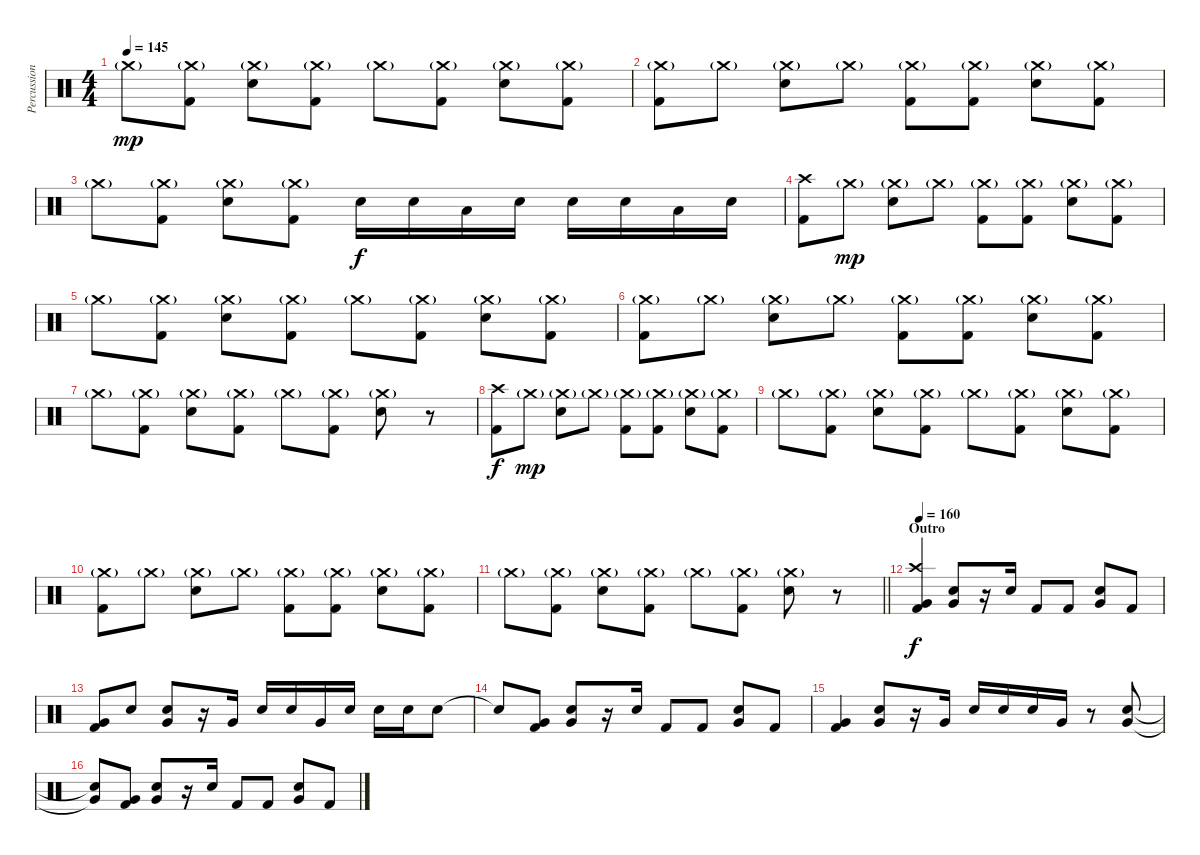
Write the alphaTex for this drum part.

\track ("Percussion" "Percussion") {instrument percussion}
\staff {score}
\articulation defaults
\ts (4 4)
\tempo 145
\clef neutral
\ks c "Crash medium (hit)"{g}.8{dy mp}
("Crash medium (hit)"{g} "Kick (hit) 2").8 ("Crash medium (hit)"{g} "Snare (hit) 2").8 ("Crash medium (hit)"{g} "Kick (hit) 2").8 "Crash medium (hit)"{g}.8 ("Crash medium (hit)"{g} "Kick (hit) 2").8 ("Crash medium (hit)"{g} "Snare (hit) 2").8 ("Crash medium (hit)"{g} "Kick (hit) 2").8 |
("Crash medium (hit)"{g} "Kick (hit) 2").8 "Crash medium (hit)"{g}.8 ("Crash medium (hit)"{g} "Snare (hit) 2").8 "Crash medium (hit)"{g}.8 ("Crash medium (hit)"{g} "Kick (hit) 2").8 ("Crash medium (hit)"{g} "Kick (hit) 2").8 ("Crash medium (hit)"{g} "Snare (hit) 2").8 ("Crash medium (hit)"{g} "Kick (hit) 2").8 |
"Crash medium (hit)"{g}.8 ("Crash medium (hit)"{g} "Kick (hit) 2").8 ("Crash medium (hit)"{g} "Snare (hit) 2").8 ("Crash medium (hit)"{g} "Kick (hit) 2").8 "Snare (hit) 2".16{dy f} "Snare (hit) 2".16 "Low Tom (hit)".16 "Snare (hit) 2".16 "Snare (hit) 2".16 "Snare (hit) 2".16 "Low Tom (hit)".16 "Snare (hit) 2".16 |
("Crash high (hit)" "Kick (hit) 2").8 "Crash medium (hit)"{g}.8{dy mp} ("Crash medium (hit)"{g} "Snare (hit) 2").8 "Crash medium (hit)"{g}.8 ("Crash medium (hit)"{g} "Kick (hit) 2").8 ("Crash medium (hit)"{g} "Kick (hit) 2").8 ("Crash medium (hit)"{g} "Snare (hit) 2").8 ("Crash medium (hit)"{g} "Kick (hit) 2").8 |
"Crash medium (hit)"{g}.8 ("Crash medium (hit)"{g} "Kick (hit) 2").8 ("Crash medium (hit)"{g} "Snare (hit) 2").8 ("Crash medium (hit)"{g} "Kick (hit) 2").8 "Crash medium (hit)"{g}.8 ("Crash medium (hit)"{g} "Kick (hit) 2").8 ("Crash medium (hit)"{g} "Snare (hit) 2").8 ("Crash medium (hit)"{g} "Kick (hit) 2").8 |
("Crash medium (hit)"{g} "Kick (hit) 2").8 "Crash medium (hit)"{g}.8 ("Crash medium (hit)"{g} "Snare (hit) 2").8 "Crash medium (hit)"{g}.8 ("Crash medium (hit)"{g} "Kick (hit) 2").8 ("Crash medium (hit)"{g} "Kick (hit) 2").8 ("Crash medium (hit)"{g} "Snare (hit) 2").8 ("Crash medium (hit)"{g} "Kick (hit) 2").8 |
"Crash medium (hit)"{g}.8 ("Crash medium (hit)"{g} "Kick (hit) 2").8 ("Crash medium (hit)"{g} "Snare (hit) 2").8 ("Crash medium (hit)"{g} "Kick (hit) 2").8 "Crash medium (hit)"{g}.8 ("Crash medium (hit)"{g} "Kick (hit) 2").8 ("Crash medium (hit)"{g} "Snare (hit) 2").8 r.8 |
("Crash high (hit)" "Kick (hit) 2").8{dy f} "Crash medium (hit)"{g}.8{dy mp} ("Crash medium (hit)"{g} "Snare (hit) 2").8 "Crash medium (hit)"{g}.8 ("Crash medium (hit)"{g} "Kick (hit) 2").8 ("Crash medium (hit)"{g} "Kick (hit) 2").8 ("Crash medium (hit)"{g} "Snare (hit) 2").8 ("Crash medium (hit)"{g} "Kick (hit) 2").8 |
"Crash medium (hit)"{g}.8 ("Crash medium (hit)"{g} "Kick (hit) 2").8 ("Crash medium (hit)"{g} "Snare (hit) 2").8 ("Crash medium (hit)"{g} "Kick (hit) 2").8 "Crash medium (hit)"{g}.8 ("Crash medium (hit)"{g} "Kick (hit) 2").8 ("Crash medium (hit)"{g} "Snare (hit) 2").8 ("Crash medium (hit)"{g} "Kick (hit) 2").8 |
("Crash medium (hit)"{g} "Kick (hit) 2").8 "Crash medium (hit)"{g}.8 ("Crash medium (hit)"{g} "Snare (hit) 2").8 "Crash medium (hit)"{g}.8 ("Crash medium (hit)"{g} "Kick (hit) 2").8 ("Crash medium (hit)"{g} "Kick (hit) 2").8 ("Crash medium (hit)"{g} "Snare (hit) 2").8 ("Crash medium (hit)"{g} "Kick (hit) 2").8 |
\barLineRight lightlight "Crash medium (hit)"{g}.8
("Crash medium (hit)"{g} "Kick (hit) 2").8 ("Crash medium (hit)"{g} "Snare (hit) 2").8 ("Crash medium (hit)"{g} "Kick (hit) 2").8 "Crash medium (hit)"{g}.8 ("Crash medium (hit)"{g} "Kick (hit) 2").8 ("Crash medium (hit)"{g} "Snare (hit) 2").8 r.8 |
\section ("" "Outro")
\tempo 160
("Crash high (hit)" "Very Low Tom (hit)" "Kick (hit) 2").4{dy f} ("Snare (hit) 2" "Very Low Tom (hit)").8 r.16 "Snare (hit) 2".16 "Kick (hit) 2".8 "Kick (hit) 2".8 ("Snare (hit) 2" "Very Low Tom (hit)").8 "Kick (hit) 2".8 |
("Very Low Tom (hit)" "Kick (hit) 2").8 "Snare (hit) 2".8 ("Snare (hit) 2" "Very Low Tom (hit)").8 r.16 "Very Low Tom (hit)".16 "Snare (hit) 2".16 "Snare (hit) 2".16 "Very Low Tom (hit)".16 "Snare (hit) 2".16 "Snare (hit) 2".16 "Snare (hit) 2".16 "Snare (hit) 2".8 |
"Snare (hit) 2"{t}.8 ("Very Low Tom (hit)" "Kick (hit) 2").8 ("Snare (hit) 2" "Very Low Tom (hit)").8 r.16 "Snare (hit) 2".16 "Kick (hit) 2".8 "Kick (hit) 2".8 ("Snare (hit) 2" "Very Low Tom (hit)").8 "Kick (hit) 2".8 |
("Very Low Tom (hit)" "Kick (hit) 2").4 ("Snare (hit) 2" "Very Low Tom (hit)").8 r.16 "Very Low Tom (hit)".16 "Snare (hit) 2".16 "Snare (hit) 2".16 "Snare (hit) 2".16 "Very Low Tom (hit)".16 r.8 ("Snare (hit) 2" "Very Low Tom (hit)").8 |
("Snare (hit) 2"{t} "Very Low Tom (hit)"{t}).8 ("Very Low Tom (hit)" "Kick (hit) 2").8 ("Snare (hit) 2" "Very Low Tom (hit)").8 r.16 "Snare (hit) 2".16 "Kick (hit) 2".8 "Kick (hit) 2".8 ("Snare (hit) 2" "Very Low Tom (hit)").8 "Kick (hit) 2".8
